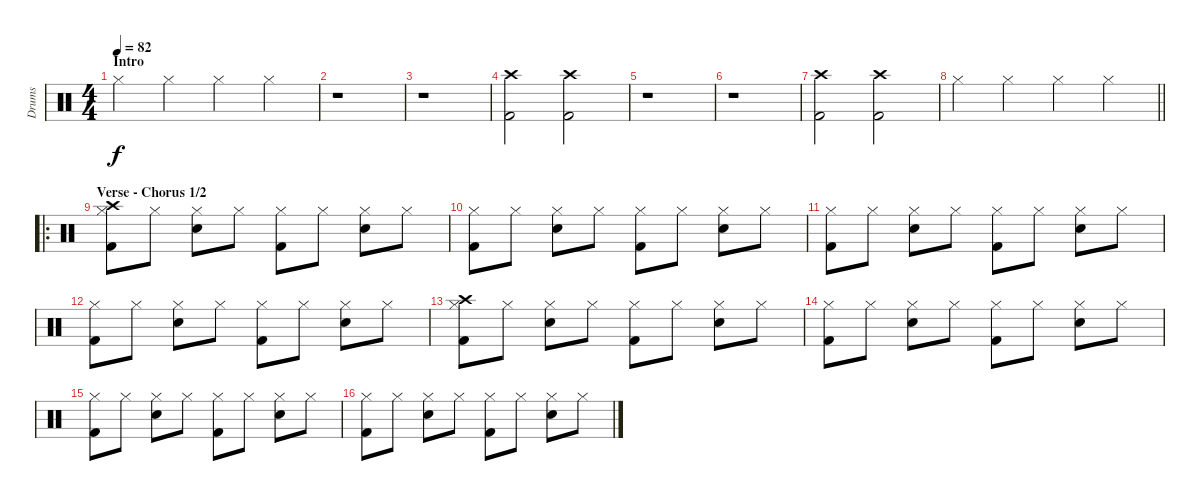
\track ("Drums" "Drums") {instrument percussion}
\staff {score}
\articulation defaults
\ts (4 4)
\section ("" "Intro")
\tempo 82
\clef neutral
\ks c "Hi-Hat (closed)".4{dy f} "Hi-Hat (closed)".4 "Hi-Hat (closed)".4 "Hi-Hat (closed)".4
|
r.1 |
r.1 |
("Kick (hit) 2" "Crash high (hit)").2 ("Kick (hit) 2" "Crash high (hit)").2 |
r.1 |
r.1 |
("Kick (hit) 2" "Crash high (hit)").2 ("Kick (hit) 2" "Crash high (hit)").2 |
\barLineRight lightlight "Hi-Hat (closed)".4 "Hi-Hat (closed)".4 "Hi-Hat (closed)".4 "Hi-Hat (closed)".4
|
\ro
\section ("" "Verse - Chorus 1/2")
("Hi-Hat (closed)" "Kick (hit) 2" "Crash high (hit)").8 "Hi-Hat (closed)".8 ("Hi-Hat (closed)" "Snare (hit) 2").8 "Hi-Hat (closed)".8 ("Hi-Hat (closed)" "Kick (hit) 2").8 "Hi-Hat (closed)".8 ("Hi-Hat (closed)" "Snare (hit) 2").8 "Hi-Hat (closed)".8 |
("Hi-Hat (closed)" "Kick (hit) 2").8 "Hi-Hat (closed)".8 ("Hi-Hat (closed)" "Snare (hit) 2").8 "Hi-Hat (closed)".8 ("Hi-Hat (closed)" "Kick (hit) 2").8 "Hi-Hat (closed)".8 ("Hi-Hat (closed)" "Snare (hit) 2").8 "Hi-Hat (closed)".8 |
("Hi-Hat (closed)" "Kick (hit) 2").8 "Hi-Hat (closed)".8 ("Hi-Hat (closed)" "Snare (hit) 2").8 "Hi-Hat (closed)".8 ("Hi-Hat (closed)" "Kick (hit) 2").8 "Hi-Hat (closed)".8 ("Hi-Hat (closed)" "Snare (hit) 2").8 "Hi-Hat (closed)".8 |
("Hi-Hat (closed)" "Kick (hit) 2").8 "Hi-Hat (closed)".8 ("Hi-Hat (closed)" "Snare (hit) 2").8 "Hi-Hat (closed)".8 ("Hi-Hat (closed)" "Kick (hit) 2").8 "Hi-Hat (closed)".8 ("Hi-Hat (closed)" "Snare (hit) 2").8 "Hi-Hat (closed)".8 |
("Hi-Hat (closed)" "Kick (hit) 2" "Crash high (hit)").8 "Hi-Hat (closed)".8 ("Hi-Hat (closed)" "Snare (hit) 2").8 "Hi-Hat (closed)".8 ("Hi-Hat (closed)" "Kick (hit) 2").8 "Hi-Hat (closed)".8 ("Hi-Hat (closed)" "Snare (hit) 2").8 "Hi-Hat (closed)".8 |
("Hi-Hat (closed)" "Kick (hit) 2").8 "Hi-Hat (closed)".8 ("Hi-Hat (closed)" "Snare (hit) 2").8 "Hi-Hat (closed)".8 ("Hi-Hat (closed)" "Kick (hit) 2").8 "Hi-Hat (closed)".8 ("Hi-Hat (closed)" "Snare (hit) 2").8 "Hi-Hat (closed)".8 |
("Hi-Hat (closed)" "Kick (hit) 2").8 "Hi-Hat (closed)".8 ("Hi-Hat (closed)" "Snare (hit) 2").8 "Hi-Hat (closed)".8 ("Hi-Hat (closed)" "Kick (hit) 2").8 "Hi-Hat (closed)".8 ("Hi-Hat (closed)" "Snare (hit) 2").8 "Hi-Hat (closed)".8 |
("Hi-Hat (closed)" "Kick (hit) 2").8 "Hi-Hat (closed)".8 ("Hi-Hat (closed)" "Snare (hit) 2").8 "Hi-Hat (closed)".8 ("Hi-Hat (closed)" "Kick (hit) 2").8 "Hi-Hat (closed)".8 ("Hi-Hat (closed)" "Snare (hit) 2").8 "Hi-Hat (closed)".8
